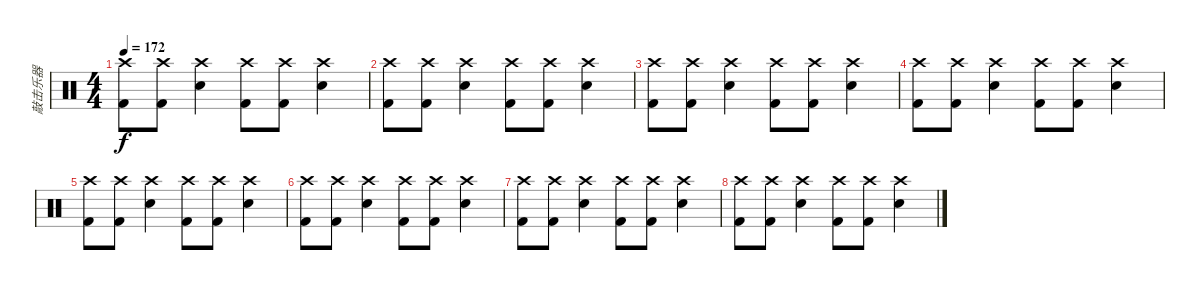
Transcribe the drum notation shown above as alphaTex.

\track ("敲击乐器" "敲击乐器") {instrument percussion}
\staff {score}
\articulation defaults
\ts (4 4)
\tempo 172
\clef neutral
\ks c
("Crash high (hit)" "Kick (hit) 2").8{dy f} ("Crash high (hit)" "Kick (hit) 2").8 ("Crash high (hit)" "Electric Snare (hit)").4 ("Crash high (hit)" "Kick (hit) 2").8 ("Crash high (hit)" "Kick (hit) 2").8 ("Crash high (hit)" "Electric Snare (hit)").4 |
("Crash high (hit)" "Kick (hit) 2").8 ("Crash high (hit)" "Kick (hit) 2").8 ("Crash high (hit)" "Electric Snare (hit)").4 ("Crash high (hit)" "Kick (hit) 2").8 ("Crash high (hit)" "Kick (hit) 2").8 ("Crash high (hit)" "Electric Snare (hit)").4 |
("Crash high (hit)" "Kick (hit) 2").8 ("Crash high (hit)" "Kick (hit) 2").8 ("Crash high (hit)" "Electric Snare (hit)").4 ("Crash high (hit)" "Kick (hit) 2").8 ("Crash high (hit)" "Kick (hit) 2").8 ("Crash high (hit)" "Electric Snare (hit)").4 |
("Crash high (hit)" "Kick (hit) 2").8 ("Crash high (hit)" "Kick (hit) 2").8 ("Crash high (hit)" "Electric Snare (hit)").4 ("Crash high (hit)" "Kick (hit) 2").8 ("Crash high (hit)" "Kick (hit) 2").8 ("Crash high (hit)" "Electric Snare (hit)").4 |
("Crash high (hit)" "Kick (hit) 2").8 ("Crash high (hit)" "Kick (hit) 2").8 ("Crash high (hit)" "Electric Snare (hit)").4 ("Crash high (hit)" "Kick (hit) 2").8 ("Crash high (hit)" "Kick (hit) 2").8 ("Crash high (hit)" "Electric Snare (hit)").4 |
("Crash high (hit)" "Kick (hit) 2").8 ("Crash high (hit)" "Kick (hit) 2").8 ("Crash high (hit)" "Electric Snare (hit)").4 ("Crash high (hit)" "Kick (hit) 2").8 ("Crash high (hit)" "Kick (hit) 2").8 ("Crash high (hit)" "Electric Snare (hit)").4 |
("Crash high (hit)" "Kick (hit) 2").8 ("Crash high (hit)" "Kick (hit) 2").8 ("Crash high (hit)" "Electric Snare (hit)").4 ("Crash high (hit)" "Kick (hit) 2").8 ("Crash high (hit)" "Kick (hit) 2").8 ("Crash high (hit)" "Electric Snare (hit)").4 |
("Crash high (hit)" "Kick (hit) 2").8 ("Crash high (hit)" "Kick (hit) 2").8 ("Crash high (hit)" "Electric Snare (hit)").4 ("Crash high (hit)" "Kick (hit) 2").8 ("Crash high (hit)" "Kick (hit) 2").8 ("Crash high (hit)" "Electric Snare (hit)").4
